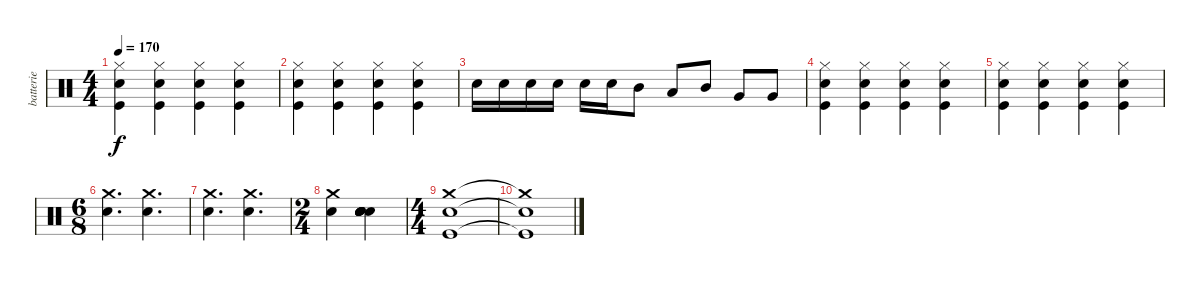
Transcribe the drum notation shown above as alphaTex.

\track ("batterie " "batterie ") {instrument percussion}
\staff {score}
\articulation defaults
\ts (4 4)
\tempo 170
\clef neutral
\ks c
("Hi-Hat (closed)" "Snare (hit) 2" "Kick (hit)").4{dy f} ("Hi-Hat (closed)" "Snare (hit) 2" "Kick (hit)").4 ("Hi-Hat (closed)" "Snare (hit) 2" "Kick (hit)").4 ("Hi-Hat (closed)" "Snare (hit) 2" "Kick (hit)").4 |
("Hi-Hat (closed)" "Snare (hit) 2" "Kick (hit)").4 ("Hi-Hat (closed)" "Snare (hit) 2" "Kick (hit)").4 ("Hi-Hat (closed)" "Snare (hit) 2" "Kick (hit)").4 ("Hi-Hat (closed)" "Snare (hit) 2" "Kick (hit)").4 |
"Snare (hit) 2".16 "Snare (hit) 2".16 "Snare (hit) 2".16 "Snare (hit) 2".16 "Snare (hit) 2".16 "Snare (hit) 2".16 "Mid Tom (hit)".8 "Low Tom (hit)".8 "Mid Tom (hit)".8 "Very Low Tom (hit)".8 "Very Low Tom (hit)".8 |
("Hi-Hat (closed)" "Snare (hit) 2" "Kick (hit)").4 ("Hi-Hat (closed)" "Snare (hit) 2" "Kick (hit)").4 ("Hi-Hat (closed)" "Snare (hit) 2" "Kick (hit)").4 ("Hi-Hat (closed)" "Snare (hit) 2" "Kick (hit)").4 |
("Hi-Hat (closed)" "Snare (hit) 2" "Kick (hit)").4 ("Hi-Hat (closed)" "Snare (hit) 2" "Kick (hit)").4 ("Hi-Hat (closed)" "Snare (hit) 2" "Kick (hit)").4 ("Hi-Hat (closed)" "Snare (hit) 2" "Kick (hit)").4 |
\ts (6 8)
("Crash medium (hit)" "Snare (hit) 2").4{d} ("Crash medium (hit)" "Snare (hit) 2").4{d} |
("Crash medium (hit)" "Snare (hit) 2").4{d} ("Crash medium (hit)" "Snare (hit) 2").4{d} |
\ts (2 4)
("Crash medium (hit)" "Snare (hit) 2").4 ("Hand Clap (hit)" "Hand Clap (hit)" "Hand Clap (hit)" "Snare (hit) 2" "Hand Clap (hit)" "Hand Clap (hit)").4 |
\ts (4 4)
("Crash medium (hit)" "Snare (hit) 2" "Kick (hit)").1 |
("Crash medium (hit)"{t} "Snare (hit) 2"{t} "Kick (hit)"{t}).1
